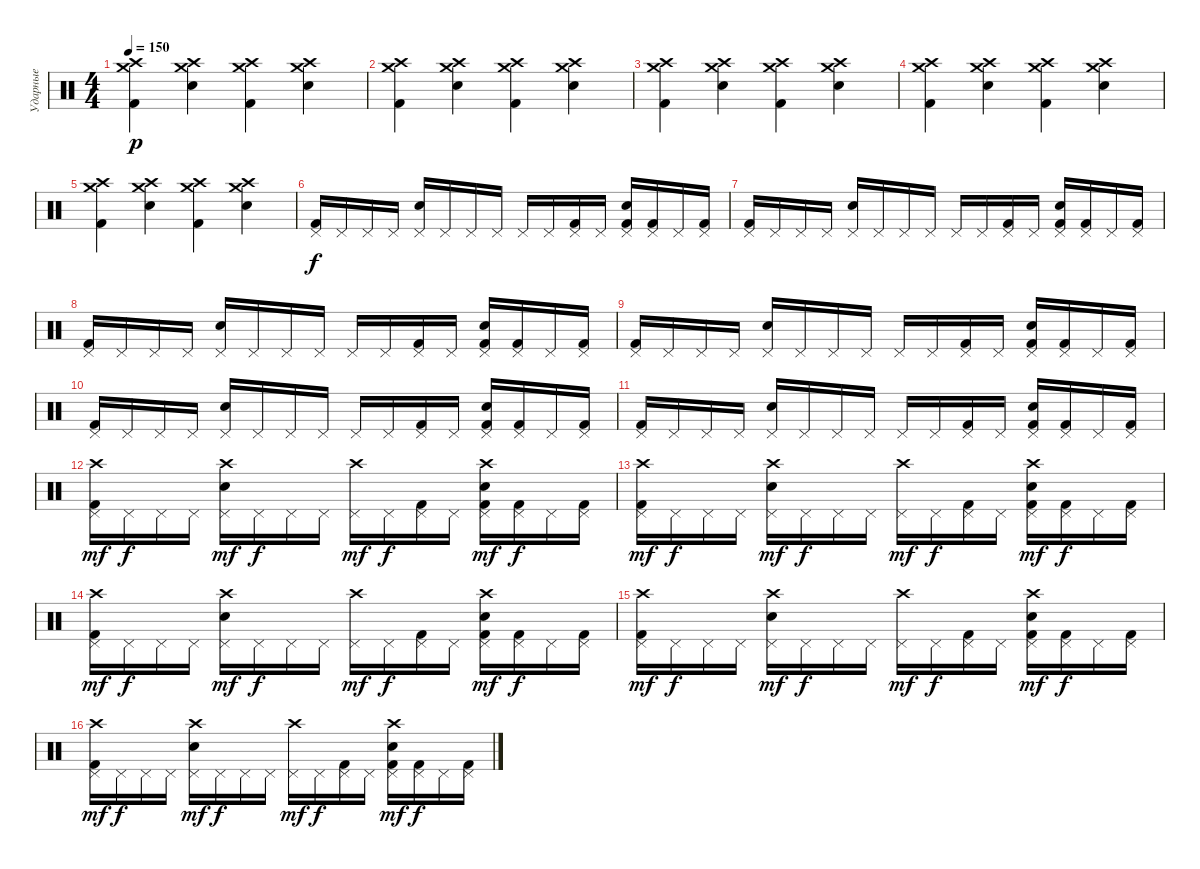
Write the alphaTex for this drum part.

\track ("Ударные" "Ударные") {instrument percussion}
\staff {score}
\articulation defaults
\ts (4 4)
\tempo 150
\clef neutral
\ks c
("Crash medium (hit)" "Crash high (hit)" "Kick (hit) 2").4{dy p} ("Electric Snare (hit)" "Crash medium (hit)" "Crash high (hit)").4 ("Kick (hit) 2" "Crash medium (hit)" "Crash high (hit)").4 ("Electric Snare (hit)" "Crash medium (hit)" "Crash high (hit)").4 |
("Crash medium (hit)" "Crash high (hit)" "Kick (hit) 2").4 ("Electric Snare (hit)" "Crash medium (hit)" "Crash high (hit)").4 ("Kick (hit) 2" "Crash medium (hit)" "Crash high (hit)").4 ("Electric Snare (hit)" "Crash medium (hit)" "Crash high (hit)").4 |
("Crash medium (hit)" "Crash high (hit)" "Kick (hit) 2").4 ("Electric Snare (hit)" "Crash medium (hit)" "Crash high (hit)").4 ("Kick (hit) 2" "Crash medium (hit)" "Crash high (hit)").4 ("Electric Snare (hit)" "Crash medium (hit)" "Crash high (hit)").4 |
("Crash medium (hit)" "Crash high (hit)" "Kick (hit) 2").4 ("Electric Snare (hit)" "Crash medium (hit)" "Crash high (hit)").4 ("Kick (hit) 2" "Crash medium (hit)" "Crash high (hit)").4 ("Electric Snare (hit)" "Crash medium (hit)" "Crash high (hit)").4 |
("Crash medium (hit)" "Crash high (hit)" "Kick (hit) 2").4 ("Electric Snare (hit)" "Crash medium (hit)" "Crash high (hit)").4 ("Kick (hit) 2" "Crash medium (hit)" "Crash high (hit)").4 ("Electric Snare (hit)" "Crash medium (hit)" "Crash high (hit)").4 |
("Pedal Hi-Hat (hit)" "Kick (hit) 2").16{dy f} "Pedal Hi-Hat (hit)".16 "Pedal Hi-Hat (hit)".16 "Pedal Hi-Hat (hit)".16 ("Pedal Hi-Hat (hit)" "Electric Snare (hit)").16 "Pedal Hi-Hat (hit)".16 "Pedal Hi-Hat (hit)".16 "Pedal Hi-Hat (hit)".16 "Pedal Hi-Hat (hit)".16 "Pedal Hi-Hat (hit)".16 ("Pedal Hi-Hat (hit)" "Kick (hit) 2").16 "Pedal Hi-Hat (hit)".16 ("Pedal Hi-Hat (hit)" "Electric Snare (hit)" "Kick (hit) 2").16 ("Pedal Hi-Hat (hit)" "Kick (hit) 2").16 "Pedal Hi-Hat (hit)".16 ("Pedal Hi-Hat (hit)" "Kick (hit) 2").16 |
("Pedal Hi-Hat (hit)" "Kick (hit) 2").16 "Pedal Hi-Hat (hit)".16 "Pedal Hi-Hat (hit)".16 "Pedal Hi-Hat (hit)".16 ("Pedal Hi-Hat (hit)" "Electric Snare (hit)").16 "Pedal Hi-Hat (hit)".16 "Pedal Hi-Hat (hit)".16 "Pedal Hi-Hat (hit)".16 "Pedal Hi-Hat (hit)".16 "Pedal Hi-Hat (hit)".16 ("Pedal Hi-Hat (hit)" "Kick (hit) 2").16 "Pedal Hi-Hat (hit)".16 ("Pedal Hi-Hat (hit)" "Electric Snare (hit)" "Kick (hit) 2").16 ("Pedal Hi-Hat (hit)" "Kick (hit) 2").16 "Pedal Hi-Hat (hit)".16 ("Pedal Hi-Hat (hit)" "Kick (hit) 2").16 |
("Pedal Hi-Hat (hit)" "Kick (hit) 2").16 "Pedal Hi-Hat (hit)".16 "Pedal Hi-Hat (hit)".16 "Pedal Hi-Hat (hit)".16 ("Pedal Hi-Hat (hit)" "Electric Snare (hit)").16 "Pedal Hi-Hat (hit)".16 "Pedal Hi-Hat (hit)".16 "Pedal Hi-Hat (hit)".16 "Pedal Hi-Hat (hit)".16 "Pedal Hi-Hat (hit)".16 ("Pedal Hi-Hat (hit)" "Kick (hit) 2").16 "Pedal Hi-Hat (hit)".16 ("Pedal Hi-Hat (hit)" "Electric Snare (hit)" "Kick (hit) 2").16 ("Pedal Hi-Hat (hit)" "Kick (hit) 2").16 "Pedal Hi-Hat (hit)".16 ("Pedal Hi-Hat (hit)" "Kick (hit) 2").16 |
("Pedal Hi-Hat (hit)" "Kick (hit) 2").16 "Pedal Hi-Hat (hit)".16 "Pedal Hi-Hat (hit)".16 "Pedal Hi-Hat (hit)".16 ("Pedal Hi-Hat (hit)" "Electric Snare (hit)").16 "Pedal Hi-Hat (hit)".16 "Pedal Hi-Hat (hit)".16 "Pedal Hi-Hat (hit)".16 "Pedal Hi-Hat (hit)".16 "Pedal Hi-Hat (hit)".16 ("Pedal Hi-Hat (hit)" "Kick (hit) 2").16 "Pedal Hi-Hat (hit)".16 ("Pedal Hi-Hat (hit)" "Electric Snare (hit)" "Kick (hit) 2").16 ("Pedal Hi-Hat (hit)" "Kick (hit) 2").16 "Pedal Hi-Hat (hit)".16 ("Pedal Hi-Hat (hit)" "Kick (hit) 2").16 |
("Pedal Hi-Hat (hit)" "Kick (hit) 2").16 "Pedal Hi-Hat (hit)".16 "Pedal Hi-Hat (hit)".16 "Pedal Hi-Hat (hit)".16 ("Pedal Hi-Hat (hit)" "Electric Snare (hit)").16 "Pedal Hi-Hat (hit)".16 "Pedal Hi-Hat (hit)".16 "Pedal Hi-Hat (hit)".16 "Pedal Hi-Hat (hit)".16 "Pedal Hi-Hat (hit)".16 ("Pedal Hi-Hat (hit)" "Kick (hit) 2").16 "Pedal Hi-Hat (hit)".16 ("Pedal Hi-Hat (hit)" "Electric Snare (hit)" "Kick (hit) 2").16 ("Pedal Hi-Hat (hit)" "Kick (hit) 2").16 "Pedal Hi-Hat (hit)".16 ("Pedal Hi-Hat (hit)" "Kick (hit) 2").16 |
("Pedal Hi-Hat (hit)" "Kick (hit) 2").16 "Pedal Hi-Hat (hit)".16 "Pedal Hi-Hat (hit)".16 "Pedal Hi-Hat (hit)".16 ("Pedal Hi-Hat (hit)" "Electric Snare (hit)").16 "Pedal Hi-Hat (hit)".16 "Pedal Hi-Hat (hit)".16 "Pedal Hi-Hat (hit)".16 "Pedal Hi-Hat (hit)".16 "Pedal Hi-Hat (hit)".16 ("Pedal Hi-Hat (hit)" "Kick (hit) 2").16 "Pedal Hi-Hat (hit)".16 ("Pedal Hi-Hat (hit)" "Electric Snare (hit)" "Kick (hit) 2").16 ("Pedal Hi-Hat (hit)" "Kick (hit) 2").16 "Pedal Hi-Hat (hit)".16 ("Pedal Hi-Hat (hit)" "Kick (hit) 2").16 |
("Crash high (hit)" "Pedal Hi-Hat (hit)" "Kick (hit) 2").16{dy mf} "Pedal Hi-Hat (hit)".16{dy f} "Pedal Hi-Hat (hit)".16 "Pedal Hi-Hat (hit)".16 ("Crash high (hit)" "Pedal Hi-Hat (hit)" "Electric Snare (hit)").16{dy mf} "Pedal Hi-Hat (hit)".16{dy f} "Pedal Hi-Hat (hit)".16 "Pedal Hi-Hat (hit)".16 ("Crash high (hit)" "Pedal Hi-Hat (hit)").16{dy mf} "Pedal Hi-Hat (hit)".16{dy f} ("Pedal Hi-Hat (hit)" "Kick (hit) 2").16 "Pedal Hi-Hat (hit)".16 ("Crash high (hit)" "Pedal Hi-Hat (hit)" "Electric Snare (hit)" "Kick (hit) 2").16{dy mf} ("Pedal Hi-Hat (hit)" "Kick (hit) 2").16{dy f} "Pedal Hi-Hat (hit)".16 ("Pedal Hi-Hat (hit)" "Kick (hit) 2").16 |
("Pedal Hi-Hat (hit)" "Kick (hit) 2" "Crash high (hit)").16{dy mf} "Pedal Hi-Hat (hit)".16{dy f} "Pedal Hi-Hat (hit)".16 "Pedal Hi-Hat (hit)".16 ("Pedal Hi-Hat (hit)" "Electric Snare (hit)" "Crash high (hit)").16{dy mf} "Pedal Hi-Hat (hit)".16{dy f} "Pedal Hi-Hat (hit)".16 "Pedal Hi-Hat (hit)".16 ("Pedal Hi-Hat (hit)" "Crash high (hit)").16{dy mf} "Pedal Hi-Hat (hit)".16{dy f} ("Pedal Hi-Hat (hit)" "Kick (hit) 2").16 "Pedal Hi-Hat (hit)".16 ("Pedal Hi-Hat (hit)" "Electric Snare (hit)" "Kick (hit) 2" "Crash high (hit)").16{dy mf} ("Pedal Hi-Hat (hit)" "Kick (hit) 2").16{dy f} "Pedal Hi-Hat (hit)".16 ("Pedal Hi-Hat (hit)" "Kick (hit) 2").16 |
("Pedal Hi-Hat (hit)" "Kick (hit) 2" "Crash high (hit)").16{dy mf} "Pedal Hi-Hat (hit)".16{dy f} "Pedal Hi-Hat (hit)".16 "Pedal Hi-Hat (hit)".16 ("Pedal Hi-Hat (hit)" "Electric Snare (hit)" "Crash high (hit)").16{dy mf} "Pedal Hi-Hat (hit)".16{dy f} "Pedal Hi-Hat (hit)".16 "Pedal Hi-Hat (hit)".16 ("Pedal Hi-Hat (hit)" "Crash high (hit)").16{dy mf} "Pedal Hi-Hat (hit)".16{dy f} ("Pedal Hi-Hat (hit)" "Kick (hit) 2").16 "Pedal Hi-Hat (hit)".16 ("Pedal Hi-Hat (hit)" "Electric Snare (hit)" "Kick (hit) 2" "Crash high (hit)").16{dy mf} ("Pedal Hi-Hat (hit)" "Kick (hit) 2").16{dy f} "Pedal Hi-Hat (hit)".16 ("Pedal Hi-Hat (hit)" "Kick (hit) 2").16 |
("Pedal Hi-Hat (hit)" "Kick (hit) 2" "Crash high (hit)").16{dy mf} "Pedal Hi-Hat (hit)".16{dy f} "Pedal Hi-Hat (hit)".16 "Pedal Hi-Hat (hit)".16 ("Pedal Hi-Hat (hit)" "Electric Snare (hit)" "Crash high (hit)").16{dy mf} "Pedal Hi-Hat (hit)".16{dy f} "Pedal Hi-Hat (hit)".16 "Pedal Hi-Hat (hit)".16 ("Pedal Hi-Hat (hit)" "Crash high (hit)").16{dy mf} "Pedal Hi-Hat (hit)".16{dy f} ("Pedal Hi-Hat (hit)" "Kick (hit) 2").16 "Pedal Hi-Hat (hit)".16 ("Pedal Hi-Hat (hit)" "Electric Snare (hit)" "Kick (hit) 2" "Crash high (hit)").16{dy mf} ("Pedal Hi-Hat (hit)" "Kick (hit) 2").16{dy f} "Pedal Hi-Hat (hit)".16 ("Pedal Hi-Hat (hit)" "Kick (hit) 2").16 |
("Pedal Hi-Hat (hit)" "Kick (hit) 2" "Crash high (hit)").16{dy mf} "Pedal Hi-Hat (hit)".16{dy f} "Pedal Hi-Hat (hit)".16 "Pedal Hi-Hat (hit)".16 ("Pedal Hi-Hat (hit)" "Electric Snare (hit)" "Crash high (hit)").16{dy mf} "Pedal Hi-Hat (hit)".16{dy f} "Pedal Hi-Hat (hit)".16 "Pedal Hi-Hat (hit)".16 ("Pedal Hi-Hat (hit)" "Crash high (hit)").16{dy mf} "Pedal Hi-Hat (hit)".16{dy f} ("Pedal Hi-Hat (hit)" "Kick (hit) 2").16 "Pedal Hi-Hat (hit)".16 ("Pedal Hi-Hat (hit)" "Electric Snare (hit)" "Kick (hit) 2" "Crash high (hit)").16{dy mf} ("Pedal Hi-Hat (hit)" "Kick (hit) 2").16{dy f} "Pedal Hi-Hat (hit)".16 ("Pedal Hi-Hat (hit)" "Kick (hit) 2").16
